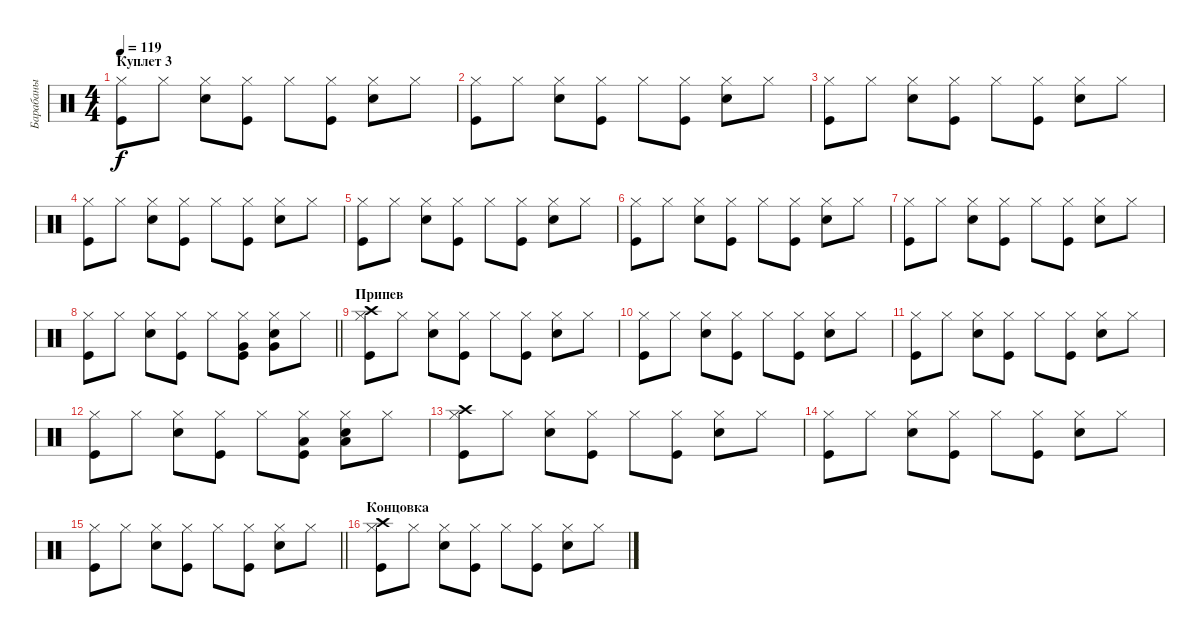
\track ("Барабаны" "Барабаны") {instrument percussion}
\staff {score}
\articulation defaults
\ts (4 4)
\section ("" "Куплет 3")
\tempo 119
\clef neutral
\ks c
("Kick (hit)" "Hi-Hat (closed)").8{dy f} "Hi-Hat (closed)".8 ("Snare (hit) 2" "Hi-Hat (closed)").8 ("Kick (hit)" "Hi-Hat (closed)").8 "Hi-Hat (closed)".8 ("Kick (hit)" "Hi-Hat (closed)").8 ("Snare (hit) 2" "Hi-Hat (closed)").8 "Hi-Hat (closed)".8 |
("Kick (hit)" "Hi-Hat (closed)").8 "Hi-Hat (closed)".8 ("Snare (hit) 2" "Hi-Hat (closed)").8 ("Kick (hit)" "Hi-Hat (closed)").8 "Hi-Hat (closed)".8 ("Kick (hit)" "Hi-Hat (closed)").8 ("Snare (hit) 2" "Hi-Hat (closed)").8 "Hi-Hat (closed)".8 |
("Kick (hit)" "Hi-Hat (closed)").8 "Hi-Hat (closed)".8 ("Snare (hit) 2" "Hi-Hat (closed)").8 ("Kick (hit)" "Hi-Hat (closed)").8 "Hi-Hat (closed)".8 ("Kick (hit)" "Hi-Hat (closed)").8 ("Snare (hit) 2" "Hi-Hat (closed)").8 "Hi-Hat (closed)".8 |
("Kick (hit)" "Hi-Hat (closed)").8 "Hi-Hat (closed)".8 ("Snare (hit) 2" "Hi-Hat (closed)").8 ("Kick (hit)" "Hi-Hat (closed)").8 "Hi-Hat (closed)".8 ("Kick (hit)" "Hi-Hat (closed)").8 ("Snare (hit) 2" "Hi-Hat (closed)").8 "Hi-Hat (closed)".8 |
("Kick (hit)" "Hi-Hat (closed)").8 "Hi-Hat (closed)".8 ("Snare (hit) 2" "Hi-Hat (closed)").8 ("Kick (hit)" "Hi-Hat (closed)").8 "Hi-Hat (closed)".8 ("Kick (hit)" "Hi-Hat (closed)").8 ("Snare (hit) 2" "Hi-Hat (closed)").8 "Hi-Hat (closed)".8 |
("Kick (hit)" "Hi-Hat (closed)").8 "Hi-Hat (closed)".8 ("Snare (hit) 2" "Hi-Hat (closed)").8 ("Kick (hit)" "Hi-Hat (closed)").8 "Hi-Hat (closed)".8 ("Kick (hit)" "Hi-Hat (closed)").8 ("Snare (hit) 2" "Hi-Hat (closed)").8 "Hi-Hat (closed)".8 |
("Kick (hit)" "Hi-Hat (closed)").8 "Hi-Hat (closed)".8 ("Snare (hit) 2" "Hi-Hat (closed)").8 ("Kick (hit)" "Hi-Hat (closed)").8 "Hi-Hat (closed)".8 ("Kick (hit)" "Hi-Hat (closed)").8 ("Snare (hit) 2" "Hi-Hat (closed)").8 "Hi-Hat (closed)".8 |
\barLineRight lightlight
("Kick (hit)" "Hi-Hat (closed)").8 "Hi-Hat (closed)".8 ("Snare (hit) 2" "Hi-Hat (closed)").8 ("Kick (hit)" "Hi-Hat (closed)").8 "Hi-Hat (closed)".8 ("Kick (hit)" "Hi-Hat (closed)" "Very Low Tom (hit)").8 ("Snare (hit) 2" "Hi-Hat (closed)" "Very Low Tom (hit)").8 "Hi-Hat (closed)".8 |
\section ("" "Припев")
("Kick (hit)" "Hi-Hat (closed)" "Crash high (hit)").8 "Hi-Hat (closed)".8 ("Snare (hit) 2" "Hi-Hat (closed)").8 ("Kick (hit)" "Hi-Hat (closed)").8 "Hi-Hat (closed)".8 ("Kick (hit)" "Hi-Hat (closed)").8 ("Snare (hit) 2" "Hi-Hat (closed)").8 "Hi-Hat (closed)".8 |
("Kick (hit)" "Hi-Hat (closed)").8 "Hi-Hat (closed)".8 ("Snare (hit) 2" "Hi-Hat (closed)").8 ("Kick (hit)" "Hi-Hat (closed)").8 "Hi-Hat (closed)".8 ("Kick (hit)" "Hi-Hat (closed)").8 ("Snare (hit) 2" "Hi-Hat (closed)").8 "Hi-Hat (closed)".8 |
("Kick (hit)" "Hi-Hat (closed)").8 "Hi-Hat (closed)".8 ("Snare (hit) 2" "Hi-Hat (closed)").8 ("Kick (hit)" "Hi-Hat (closed)").8 "Hi-Hat (closed)".8 ("Kick (hit)" "Hi-Hat (closed)").8 ("Snare (hit) 2" "Hi-Hat (closed)").8 "Hi-Hat (closed)".8 |
("Kick (hit)" "Hi-Hat (closed)").8 "Hi-Hat (closed)".8 ("Snare (hit) 2" "Hi-Hat (closed)").8 ("Kick (hit)" "Hi-Hat (closed)").8 "Hi-Hat (closed)".8 ("Kick (hit)" "Hi-Hat (closed)" "Low Tom (hit)").8 ("Snare (hit) 2" "Hi-Hat (closed)" "Low Tom (hit)").8 "Hi-Hat (closed)".8 |
("Kick (hit)" "Hi-Hat (closed)" "Crash high (hit)").8 "Hi-Hat (closed)".8 ("Snare (hit) 2" "Hi-Hat (closed)").8 ("Kick (hit)" "Hi-Hat (closed)").8 "Hi-Hat (closed)".8 ("Kick (hit)" "Hi-Hat (closed)").8 ("Snare (hit) 2" "Hi-Hat (closed)").8 "Hi-Hat (closed)".8 |
("Kick (hit)" "Hi-Hat (closed)").8 "Hi-Hat (closed)".8 ("Snare (hit) 2" "Hi-Hat (closed)").8 ("Kick (hit)" "Hi-Hat (closed)").8 "Hi-Hat (closed)".8 ("Kick (hit)" "Hi-Hat (closed)").8 ("Snare (hit) 2" "Hi-Hat (closed)").8 "Hi-Hat (closed)".8 |
\barLineRight lightlight
("Kick (hit)" "Hi-Hat (closed)").8 "Hi-Hat (closed)".8 ("Snare (hit) 2" "Hi-Hat (closed)").8 ("Kick (hit)" "Hi-Hat (closed)").8 "Hi-Hat (closed)".8 ("Kick (hit)" "Hi-Hat (closed)").8 ("Snare (hit) 2" "Hi-Hat (closed)").8 "Hi-Hat (closed)".8 |
\section ("" "Концовка")
("Kick (hit)" "Hi-Hat (closed)" "Crash high (hit)").8 "Hi-Hat (closed)".8 ("Snare (hit) 2" "Hi-Hat (closed)").8 ("Kick (hit)" "Hi-Hat (closed)").8 "Hi-Hat (closed)".8 ("Kick (hit)" "Hi-Hat (closed)").8 ("Snare (hit) 2" "Hi-Hat (closed)").8 "Hi-Hat (closed)".8
